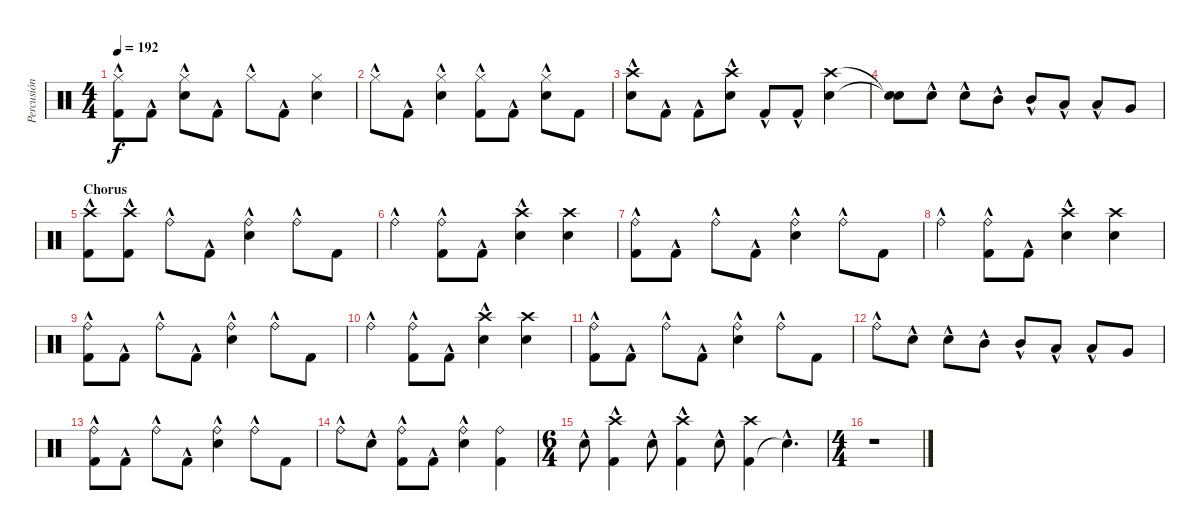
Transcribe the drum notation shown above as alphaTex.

\track ("Percusión" "Percusión") {instrument percussion}
\staff {score}
\articulation defaults
\ts (4 4)
\tempo 192
\clef neutral
\ks c
("Hi-Hat (closed)"{hac} "Kick (hit) 2"{hac}).8{dy f} "Kick (hit) 2"{hac}.8 ("Hi-Hat (closed)"{hac} "Electric Snare (hit)"{hac}).8 "Kick (hit) 2"{hac}.8 "Hi-Hat (closed)"{hac}.8 "Kick (hit) 2"{hac}.8 ("Electric Snare (hit)" "Hi-Hat (closed)").4 |
"Hi-Hat (closed)"{hac}.8 "Kick (hit) 2"{hac}.8 ("Electric Snare (hit)"{hac} "Hi-Hat (closed)"{hac}).4 ("Kick (hit) 2"{hac} "Hi-Hat (closed)"{hac}).8 "Kick (hit) 2"{hac}.8 ("Electric Snare (hit)"{hac} "Hi-Hat (closed)"{hac}).8 "Kick (hit) 2".8 |
("Electric Snare (hit)"{hac} "Crash high (hit)").8 "Kick (hit) 2"{hac}.8 "Kick (hit) 2"{hac}.8 ("Crash high (hit)" "Electric Snare (hit)"{hac}).8 "Kick (hit) 2"{hac}.8 "Kick (hit) 2"{hac}.8 ("Electric Snare (hit)" "Crash high (hit)").4 |
("Snare (hit)"{t} "Snare (hit)"{t}).8 "Electric Snare (hit)"{hac}.8 "Electric Snare (hit)"{hac}.8 "Mid Tom (hit)"{hac}.8 "Mid Tom (hit)"{hac}.8 "Low Tom (hit)"{hac}.8 "Low Tom (hit)"{hac}.8 "Very Low Tom (hit)".8 |
\section ("" "Chorus")
("Kick (hit) 2"{hac} "Crash high (hit)"{hac}).8 ("Crash high (hit)"{hac} "Kick (hit) 2"{hac}).8 "Ride (bell)"{hac}.8 "Kick (hit) 2"{hac}.8 ("Electric Snare (hit)"{hac} "Ride (bell)"{hac}).4 "Ride (bell)"{hac}.8 "Kick (hit) 2".8 |
"Ride (bell)"{hac}.4 ("Kick (hit) 2"{hac} "Ride (bell)"{hac}).8 "Kick (hit) 2"{hac}.8 ("Electric Snare (hit)"{hac} "Crash high (hit)"{hac}).4 ("Electric Snare (hit)" "Crash high (hit)").4 |
("Kick (hit) 2"{hac} "Ride (bell)"{hac}).8 "Kick (hit) 2"{hac}.8 "Ride (bell)"{hac}.8 "Kick (hit) 2"{hac}.8 ("Ride (bell)"{hac} "Electric Snare (hit)"{hac}).4 "Ride (bell)"{hac}.8 "Kick (hit) 2".8 |
"Ride (bell)"{hac}.4 ("Kick (hit) 2"{hac} "Ride (bell)"{hac}).8 "Kick (hit) 2"{hac}.8 ("Electric Snare (hit)"{hac} "Crash high (hit)"{hac}).4 ("Crash high (hit)" "Electric Snare (hit)").4 |
("Kick (hit) 2"{hac} "Ride (bell)"{hac}).8 "Kick (hit) 2"{hac}.8 "Ride (bell)"{hac}.8 "Kick (hit) 2"{hac}.8 ("Ride (bell)"{hac} "Electric Snare (hit)"{hac}).4 "Ride (bell)"{hac}.8 "Kick (hit) 2".8 |
"Ride (bell)"{hac}.4 ("Ride (bell)"{hac} "Kick (hit) 2"{hac}).8 "Kick (hit) 2"{hac}.8 ("Crash high (hit)"{hac} "Electric Snare (hit)"{hac}).4 ("Crash high (hit)" "Electric Snare (hit)").4 |
("Kick (hit) 2"{hac} "Ride (bell)"{hac}).8 "Kick (hit) 2"{hac}.8 "Ride (bell)"{hac}.8 "Kick (hit) 2"{hac}.8 ("Electric Snare (hit)"{hac} "Ride (bell)"{hac}).4 "Ride (bell)"{hac}.8 "Kick (hit) 2".8 |
"Ride (bell)"{hac}.8 "Electric Snare (hit)"{hac}.8 "Electric Snare (hit)"{hac}.8 "Mid Tom (hit)"{hac}.8 "Mid Tom (hit)"{hac}.8 "Low Tom (hit)"{hac}.8 "Low Tom (hit)"{hac}.8 "Very Low Tom (hit)".8 |
("Kick (hit) 2"{hac} "Ride (bell)"{hac}).8 "Kick (hit) 2"{hac}.8 "Ride (bell)"{hac}.8 "Kick (hit) 2"{hac}.8 ("Electric Snare (hit)"{hac} "Ride (bell)"{hac}).4 "Ride (bell)"{hac}.8 "Kick (hit) 2".8 |
"Ride (bell)"{hac}.8 "Electric Snare (hit)"{hac}.8 ("Kick (hit) 2"{hac} "Ride (bell)"{hac}).8 "Kick (hit) 2"{hac}.8 ("Electric Snare (hit)"{hac} "Ride (bell)"{hac}).4 ("Kick (hit) 2" "Ride (bell)").4 |
\ts (6 4)
"Electric Snare (hit)"{hac}.8 ("Kick (hit) 2"{hac} "Crash high (hit)"{hac}).4 "Electric Snare (hit)"{hac}.8 ("Crash high (hit)"{hac} "Kick (hit) 2"{hac}).4 "Electric Snare (hit)"{hac}.8 ("Kick (hit) 2" "Crash high (hit)").4 "Snare (hit)"{hac t}.4{d} |
\ts (4 4)
r.1
